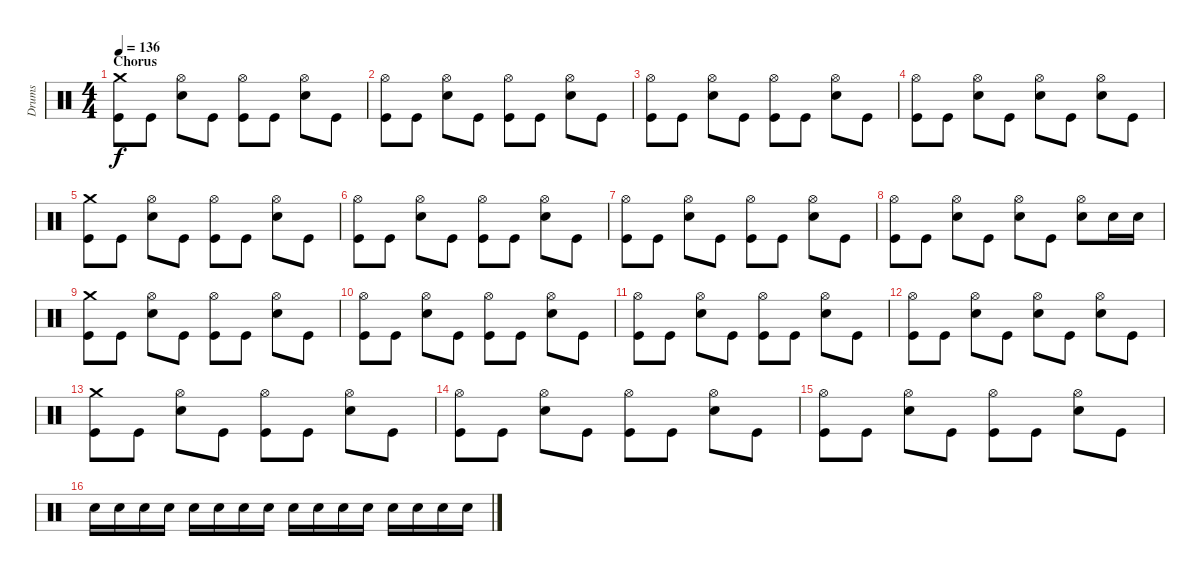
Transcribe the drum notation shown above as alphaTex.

\track ("Drums" "Drums") {instrument percussion}
\staff {score}
\articulation defaults
\ts (4 4)
\section ("" "Chorus")
\tempo 136
\clef neutral
\ks c
("Crash medium (hit)" "Kick (hit)").8{dy f} "Kick (hit)".8 ("Hi-Hat (open)" "Snare (hit) 2").8 "Kick (hit)".8 ("Hi-Hat (open)" "Kick (hit)").8 "Kick (hit)".8 ("Hi-Hat (open)" "Snare (hit) 2").8 "Kick (hit)".8 |
("Hi-Hat (open)" "Kick (hit)").8 "Kick (hit)".8 ("Hi-Hat (open)" "Snare (hit) 2").8 "Kick (hit)".8 ("Hi-Hat (open)" "Kick (hit)").8 "Kick (hit)".8 ("Hi-Hat (open)" "Snare (hit) 2").8 "Kick (hit)".8 |
("Hi-Hat (open)" "Kick (hit)").8 "Kick (hit)".8 ("Hi-Hat (open)" "Snare (hit) 2").8 "Kick (hit)".8 ("Hi-Hat (open)" "Kick (hit)").8 "Kick (hit)".8 ("Hi-Hat (open)" "Snare (hit) 2").8 "Kick (hit)".8 |
("Hi-Hat (open)" "Kick (hit)").8 "Kick (hit)".8 ("Hi-Hat (open)" "Snare (hit) 2").8 "Kick (hit)".8 ("Hi-Hat (open)" "Snare (hit) 2").8 "Kick (hit)".8 ("Hi-Hat (open)" "Snare (hit) 2").8 "Kick (hit)".8 |
("Crash medium (hit)" "Kick (hit)").8 "Kick (hit)".8 ("Hi-Hat (open)" "Snare (hit) 2").8 "Kick (hit)".8 ("Hi-Hat (open)" "Kick (hit)").8 "Kick (hit)".8 ("Hi-Hat (open)" "Snare (hit) 2").8 "Kick (hit)".8 |
("Hi-Hat (open)" "Kick (hit)").8 "Kick (hit)".8 ("Hi-Hat (open)" "Snare (hit) 2").8 "Kick (hit)".8 ("Hi-Hat (open)" "Kick (hit)").8 "Kick (hit)".8 ("Hi-Hat (open)" "Snare (hit) 2").8 "Kick (hit)".8 |
("Hi-Hat (open)" "Kick (hit)").8 "Kick (hit)".8 ("Hi-Hat (open)" "Snare (hit) 2").8 "Kick (hit)".8 ("Hi-Hat (open)" "Kick (hit)").8 "Kick (hit)".8 ("Hi-Hat (open)" "Snare (hit) 2").8 "Kick (hit)".8 |
("Hi-Hat (open)" "Kick (hit)").8 "Kick (hit)".8 ("Hi-Hat (open)" "Snare (hit) 2").8 "Kick (hit)".8 ("Hi-Hat (open)" "Snare (hit) 2").8 "Kick (hit)".8 ("Hi-Hat (open)" "Snare (hit) 2").8 "Snare (hit) 2".16 "Snare (hit) 2".16 |
("Crash medium (hit)" "Kick (hit)").8 "Kick (hit)".8 ("Hi-Hat (open)" "Snare (hit) 2").8 "Kick (hit)".8 ("Hi-Hat (open)" "Kick (hit)").8 "Kick (hit)".8 ("Hi-Hat (open)" "Snare (hit) 2").8 "Kick (hit)".8 |
("Hi-Hat (open)" "Kick (hit)").8 "Kick (hit)".8 ("Hi-Hat (open)" "Snare (hit) 2").8 "Kick (hit)".8 ("Hi-Hat (open)" "Kick (hit)").8 "Kick (hit)".8 ("Hi-Hat (open)" "Snare (hit) 2").8 "Kick (hit)".8 |
("Hi-Hat (open)" "Kick (hit)").8 "Kick (hit)".8 ("Hi-Hat (open)" "Snare (hit) 2").8 "Kick (hit)".8 ("Hi-Hat (open)" "Kick (hit)").8 "Kick (hit)".8 ("Hi-Hat (open)" "Snare (hit) 2").8 "Kick (hit)".8 |
("Hi-Hat (open)" "Kick (hit)").8 "Kick (hit)".8 ("Hi-Hat (open)" "Snare (hit) 2").8 "Kick (hit)".8 ("Hi-Hat (open)" "Snare (hit) 2").8 "Kick (hit)".8 ("Hi-Hat (open)" "Snare (hit) 2").8 "Kick (hit)".8 |
("Crash medium (hit)" "Kick (hit)").8 "Kick (hit)".8 ("Hi-Hat (open)" "Snare (hit) 2").8 "Kick (hit)".8 ("Hi-Hat (open)" "Kick (hit)").8 "Kick (hit)".8 ("Hi-Hat (open)" "Snare (hit) 2").8 "Kick (hit)".8 |
("Hi-Hat (open)" "Kick (hit)").8 "Kick (hit)".8 ("Hi-Hat (open)" "Snare (hit) 2").8 "Kick (hit)".8 ("Hi-Hat (open)" "Kick (hit)").8 "Kick (hit)".8 ("Hi-Hat (open)" "Snare (hit) 2").8 "Kick (hit)".8 |
("Hi-Hat (open)" "Kick (hit)").8 "Kick (hit)".8 ("Hi-Hat (open)" "Snare (hit) 2").8 "Kick (hit)".8 ("Hi-Hat (open)" "Kick (hit)").8 "Kick (hit)".8 ("Hi-Hat (open)" "Snare (hit) 2").8 "Kick (hit)".8 |
"Snare (hit) 2".16 "Snare (hit) 2".16 "Snare (hit) 2".16 "Snare (hit) 2".16 "Snare (hit) 2".16 "Snare (hit) 2".16 "Snare (hit) 2".16 "Snare (hit) 2".16 "Snare (hit) 2".16 "Snare (hit) 2".16 "Snare (hit) 2".16 "Snare (hit) 2".16 "Snare (hit) 2".16 "Snare (hit) 2".16 "Snare (hit) 2".16 "Snare (hit) 2".16
